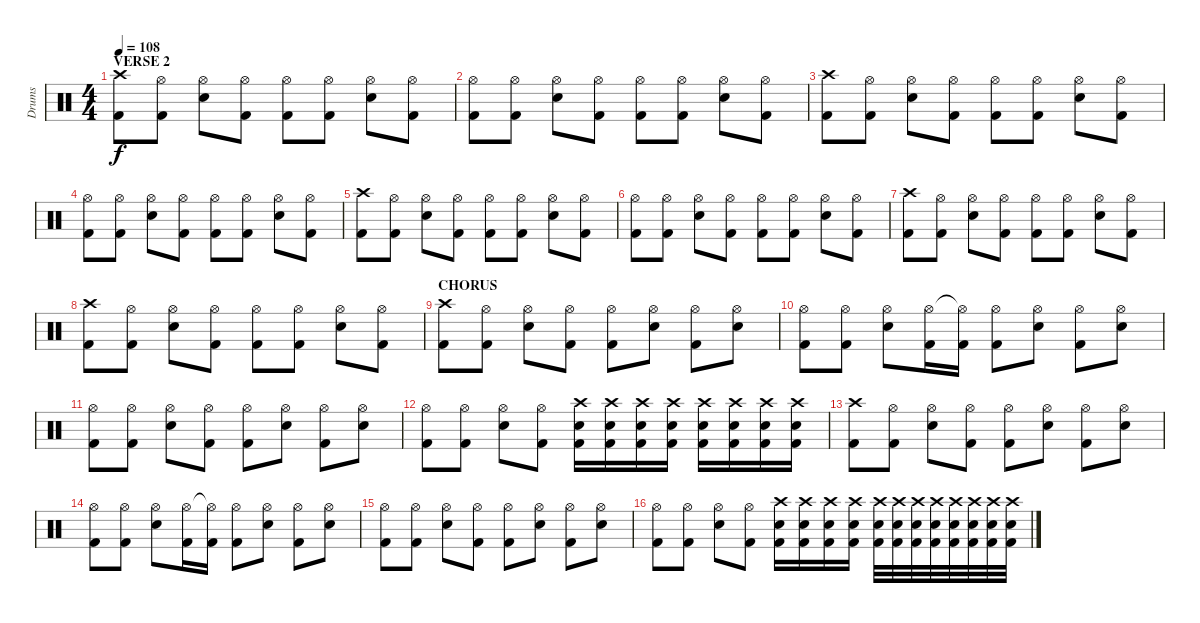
\track ("Drums" "Drums") {instrument percussion}
\staff {score}
\articulation defaults
\ts (4 4)
\section ("" "VERSE 2")
\tempo 108
\clef neutral
\ks c
("Crash high (hit)" "Kick (hit) 2").8{dy f} ("Hi-Hat (open)" "Kick (hit) 2").8 ("Hi-Hat (open)" "Electric Snare (hit)").8 ("Hi-Hat (open)" "Kick (hit) 2").8 ("Hi-Hat (open)" "Kick (hit) 2").8 ("Hi-Hat (open)" "Kick (hit) 2").8 ("Hi-Hat (open)" "Electric Snare (hit)").8 ("Hi-Hat (open)" "Kick (hit) 2").8 |
("Hi-Hat (open)" "Kick (hit) 2").8 ("Hi-Hat (open)" "Kick (hit) 2").8 ("Hi-Hat (open)" "Electric Snare (hit)").8 ("Hi-Hat (open)" "Kick (hit) 2").8 ("Hi-Hat (open)" "Kick (hit) 2").8 ("Hi-Hat (open)" "Kick (hit) 2").8 ("Hi-Hat (open)" "Electric Snare (hit)").8 ("Hi-Hat (open)" "Kick (hit) 2").8 |
("Crash high (hit)" "Kick (hit) 2").8 ("Hi-Hat (open)" "Kick (hit) 2").8 ("Hi-Hat (open)" "Electric Snare (hit)").8 ("Hi-Hat (open)" "Kick (hit) 2").8 ("Hi-Hat (open)" "Kick (hit) 2").8 ("Hi-Hat (open)" "Kick (hit) 2").8 ("Hi-Hat (open)" "Electric Snare (hit)").8 ("Hi-Hat (open)" "Kick (hit) 2").8 |
("Hi-Hat (open)" "Kick (hit) 2").8 ("Hi-Hat (open)" "Kick (hit) 2").8 ("Hi-Hat (open)" "Electric Snare (hit)").8 ("Hi-Hat (open)" "Kick (hit) 2").8 ("Hi-Hat (open)" "Kick (hit) 2").8 ("Hi-Hat (open)" "Kick (hit) 2").8 ("Hi-Hat (open)" "Electric Snare (hit)").8 ("Hi-Hat (open)" "Kick (hit) 2").8 |
("Crash high (hit)" "Kick (hit) 2").8 ("Hi-Hat (open)" "Kick (hit) 2").8 ("Hi-Hat (open)" "Electric Snare (hit)").8 ("Hi-Hat (open)" "Kick (hit) 2").8 ("Hi-Hat (open)" "Kick (hit) 2").8 ("Hi-Hat (open)" "Kick (hit) 2").8 ("Hi-Hat (open)" "Electric Snare (hit)").8 ("Hi-Hat (open)" "Kick (hit) 2").8 |
("Hi-Hat (open)" "Kick (hit) 2").8 ("Hi-Hat (open)" "Kick (hit) 2").8 ("Hi-Hat (open)" "Electric Snare (hit)").8 ("Hi-Hat (open)" "Kick (hit) 2").8 ("Hi-Hat (open)" "Kick (hit) 2").8 ("Hi-Hat (open)" "Kick (hit) 2").8 ("Hi-Hat (open)" "Electric Snare (hit)").8 ("Hi-Hat (open)" "Kick (hit) 2").8 |
("Crash high (hit)" "Kick (hit) 2").8 ("Hi-Hat (open)" "Kick (hit) 2").8 ("Hi-Hat (open)" "Electric Snare (hit)").8 ("Hi-Hat (open)" "Kick (hit) 2").8 ("Hi-Hat (open)" "Kick (hit) 2").8 ("Hi-Hat (open)" "Kick (hit) 2").8 ("Hi-Hat (open)" "Electric Snare (hit)").8 ("Hi-Hat (open)" "Kick (hit) 2").8 |
("Crash high (hit)" "Kick (hit) 2").8 ("Hi-Hat (open)" "Kick (hit) 2").8 ("Hi-Hat (open)" "Electric Snare (hit)").8 ("Hi-Hat (open)" "Kick (hit) 2").8 ("Hi-Hat (open)" "Kick (hit) 2").8 ("Hi-Hat (open)" "Kick (hit) 2").8 ("Hi-Hat (open)" "Electric Snare (hit)").8 ("Hi-Hat (open)" "Kick (hit) 2").8 |
\section ("" "CHORUS")
("Crash high (hit)" "Kick (hit) 2").8 ("Hi-Hat (open)" "Kick (hit) 2").8 ("Hi-Hat (open)" "Electric Snare (hit)").8 ("Hi-Hat (open)" "Kick (hit) 2").8 ("Hi-Hat (open)" "Kick (hit) 2").8 ("Hi-Hat (open)" "Electric Snare (hit)").8 ("Hi-Hat (open)" "Kick (hit) 2").8 ("Hi-Hat (open)" "Electric Snare (hit)").8 |
("Hi-Hat (open)" "Kick (hit) 2").8 ("Hi-Hat (open)" "Kick (hit) 2").8 ("Hi-Hat (open)" "Electric Snare (hit)").8 ("Hi-Hat (open)" "Kick (hit) 2").16 ("Hi-Hat (open)"{t} "Kick (hit) 2").16 ("Hi-Hat (open)" "Kick (hit) 2").8 ("Hi-Hat (open)" "Electric Snare (hit)").8 ("Hi-Hat (open)" "Kick (hit) 2").8 ("Hi-Hat (open)" "Electric Snare (hit)").8 |
("Hi-Hat (open)" "Kick (hit) 2").8 ("Hi-Hat (open)" "Kick (hit) 2").8 ("Hi-Hat (open)" "Electric Snare (hit)").8 ("Hi-Hat (open)" "Kick (hit) 2").8 ("Hi-Hat (open)" "Kick (hit) 2").8 ("Hi-Hat (open)" "Electric Snare (hit)").8 ("Hi-Hat (open)" "Kick (hit) 2").8 ("Hi-Hat (open)" "Electric Snare (hit)").8 |
("Hi-Hat (open)" "Kick (hit) 2").8 ("Hi-Hat (open)" "Kick (hit) 2").8 ("Hi-Hat (open)" "Electric Snare (hit)").8 ("Hi-Hat (open)" "Kick (hit) 2").8 ("Crash high (hit)" "Kick (hit) 2" "Electric Snare (hit)").16 ("Crash high (hit)" "Kick (hit) 2" "Electric Snare (hit)").16 ("Crash high (hit)" "Kick (hit) 2" "Electric Snare (hit)").16 ("Crash high (hit)" "Kick (hit) 2" "Electric Snare (hit)").16 ("Crash high (hit)" "Kick (hit) 2" "Electric Snare (hit)").16 ("Crash high (hit)" "Kick (hit) 2" "Electric Snare (hit)").16 ("Crash high (hit)" "Kick (hit) 2" "Electric Snare (hit)").16 ("Crash high (hit)" "Kick (hit) 2" "Electric Snare (hit)").16 |
("Crash high (hit)" "Kick (hit) 2").8 ("Hi-Hat (open)" "Kick (hit) 2").8 ("Hi-Hat (open)" "Electric Snare (hit)").8 ("Hi-Hat (open)" "Kick (hit) 2").8 ("Hi-Hat (open)" "Kick (hit) 2").8 ("Hi-Hat (open)" "Electric Snare (hit)").8 ("Hi-Hat (open)" "Kick (hit) 2").8 ("Hi-Hat (open)" "Electric Snare (hit)").8 |
("Hi-Hat (open)" "Kick (hit) 2").8 ("Hi-Hat (open)" "Kick (hit) 2").8 ("Hi-Hat (open)" "Electric Snare (hit)").8 ("Hi-Hat (open)" "Kick (hit) 2").16 ("Hi-Hat (open)"{t} "Kick (hit) 2").16 ("Hi-Hat (open)" "Kick (hit) 2").8 ("Hi-Hat (open)" "Electric Snare (hit)").8 ("Hi-Hat (open)" "Kick (hit) 2").8 ("Hi-Hat (open)" "Electric Snare (hit)").8 |
("Hi-Hat (open)" "Kick (hit) 2").8 ("Hi-Hat (open)" "Kick (hit) 2").8 ("Hi-Hat (open)" "Electric Snare (hit)").8 ("Hi-Hat (open)" "Kick (hit) 2").8 ("Hi-Hat (open)" "Kick (hit) 2").8 ("Hi-Hat (open)" "Electric Snare (hit)").8 ("Hi-Hat (open)" "Kick (hit) 2").8 ("Hi-Hat (open)" "Electric Snare (hit)").8 |
("Hi-Hat (open)" "Kick (hit) 2").8 ("Hi-Hat (open)" "Kick (hit) 2").8 ("Hi-Hat (open)" "Electric Snare (hit)").8 ("Hi-Hat (open)" "Kick (hit) 2").8 ("Crash high (hit)" "Kick (hit) 2" "Electric Snare (hit)").16 ("Crash high (hit)" "Kick (hit) 2" "Electric Snare (hit)").16 ("Crash high (hit)" "Kick (hit) 2" "Electric Snare (hit)").16 ("Crash high (hit)" "Kick (hit) 2" "Electric Snare (hit)").16 ("Crash high (hit)" "Kick (hit) 2" "Electric Snare (hit)").32 ("Crash high (hit)" "Kick (hit) 2" "Electric Snare (hit)").32 ("Crash high (hit)" "Kick (hit) 2" "Electric Snare (hit)").32 ("Crash high (hit)" "Kick (hit) 2" "Electric Snare (hit)").32 ("Crash high (hit)" "Kick (hit) 2" "Electric Snare (hit)").32 ("Crash high (hit)" "Kick (hit) 2" "Electric Snare (hit)").32 ("Crash high (hit)" "Kick (hit) 2" "Electric Snare (hit)").32 ("Crash high (hit)" "Kick (hit) 2" "Electric Snare (hit)").32
